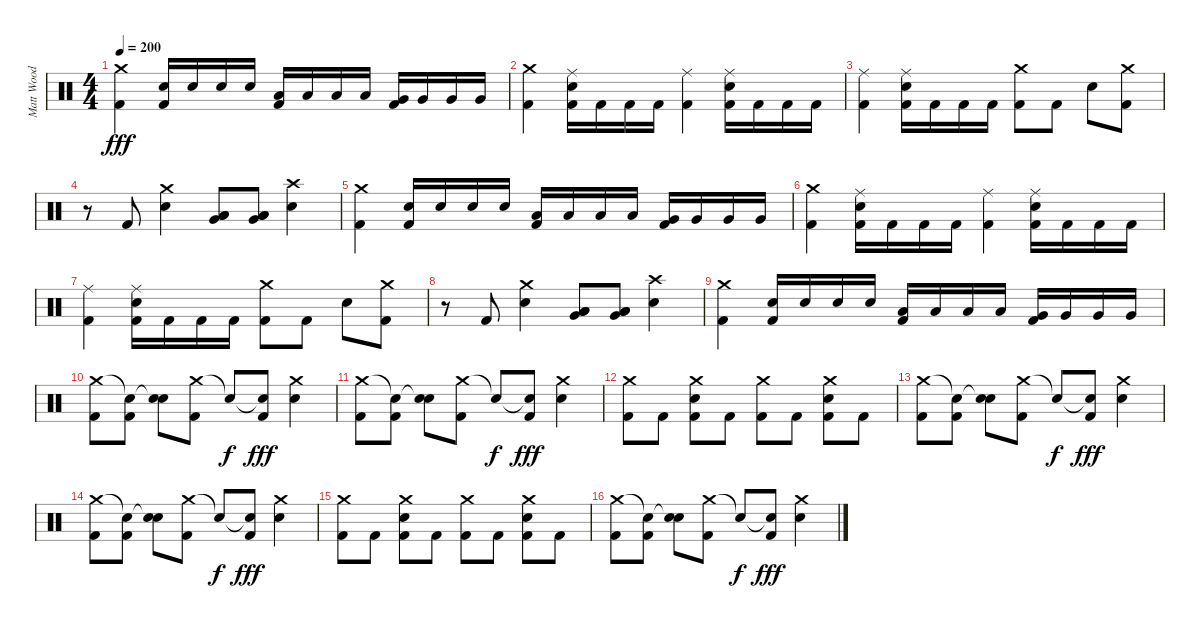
\track ("Matt Wood" "Matt Wood") {instrument percussion}
\staff {score}
\articulation defaults
\ts (4 4)
\tempo 200
\clef neutral
\ks c
("Crash medium (hit)" "Kick (hit) 2").4{dy fff} ("Electric Snare (hit)" "Kick (hit) 2").16 "Electric Snare (hit)".16 "Electric Snare (hit)".16 "Electric Snare (hit)".16 ("Low Tom (hit)" "Kick (hit) 2").16 "Low Tom (hit)".16 "Low Tom (hit)".16 "Low Tom (hit)".16 ("Very Low Tom (hit)" "Kick (hit) 2").16 "Very Low Tom (hit)".16 "Very Low Tom (hit)".16 "Very Low Tom (hit)".16 |
("Crash medium (hit)" "Kick (hit) 2").4 ("Ride (middle)" "Electric Snare (hit)" "Kick (hit) 2").16 "Kick (hit) 2".16 "Kick (hit) 2".16 "Kick (hit) 2".16 ("Ride (middle)" "Kick (hit) 2").4 ("Ride (middle)" "Electric Snare (hit)" "Kick (hit) 2").16 "Kick (hit) 2".16 "Kick (hit) 2".16 "Kick (hit) 2".16 |
("Ride (middle)" "Kick (hit) 2").4 ("Ride (middle)" "Electric Snare (hit)" "Kick (hit) 2").16 "Kick (hit) 2".16 "Kick (hit) 2".16 "Kick (hit) 2".16 ("Crash medium (hit)" "Kick (hit) 2").8 "Kick (hit) 2".8 "Electric Snare (hit)".8 ("Crash medium (hit)" "Kick (hit) 2").8 |
r.8 "Kick (hit) 2".8 ("Crash medium (hit)" "Electric Snare (hit)").4 ("Low Tom (hit)" "Very Low Tom (hit)" "Low Floor Tom (hit)").8 ("Low Tom (hit)" "Very Low Tom (hit)" "Low Floor Tom (hit)").8 ("Crash high (hit)" "Electric Snare (hit)").4 |
("Crash medium (hit)" "Kick (hit) 2").4 ("Electric Snare (hit)" "Kick (hit) 2").16 "Electric Snare (hit)".16 "Electric Snare (hit)".16 "Electric Snare (hit)".16 ("Low Tom (hit)" "Kick (hit) 2").16 "Low Tom (hit)".16 "Low Tom (hit)".16 "Low Tom (hit)".16 ("Very Low Tom (hit)" "Kick (hit) 2").16 "Very Low Tom (hit)".16 "Very Low Tom (hit)".16 "Very Low Tom (hit)".16 |
("Crash medium (hit)" "Kick (hit) 2").4 ("Ride (middle)" "Electric Snare (hit)" "Kick (hit) 2").16 "Kick (hit) 2".16 "Kick (hit) 2".16 "Kick (hit) 2".16 ("Ride (middle)" "Kick (hit) 2").4 ("Ride (middle)" "Electric Snare (hit)" "Kick (hit) 2").16 "Kick (hit) 2".16 "Kick (hit) 2".16 "Kick (hit) 2".16 |
("Ride (middle)" "Kick (hit) 2").4 ("Ride (middle)" "Electric Snare (hit)" "Kick (hit) 2").16 "Kick (hit) 2".16 "Kick (hit) 2".16 "Kick (hit) 2".16 ("Crash medium (hit)" "Kick (hit) 2").8 "Kick (hit) 2".8 "Electric Snare (hit)".8 ("Crash medium (hit)" "Kick (hit) 2").8 |
r.8 "Kick (hit) 2".8 ("Crash medium (hit)" "Electric Snare (hit)").4 ("Low Tom (hit)" "Very Low Tom (hit)" "Low Floor Tom (hit)").8 ("Low Tom (hit)" "Very Low Tom (hit)" "Low Floor Tom (hit)").8 ("Crash high (hit)" "Electric Snare (hit)").4 |
("Crash medium (hit)" "Kick (hit) 2").4 ("Electric Snare (hit)" "Kick (hit) 2").16 "Electric Snare (hit)".16 "Electric Snare (hit)".16 "Electric Snare (hit)".16 ("Low Tom (hit)" "Kick (hit) 2").16 "Low Tom (hit)".16 "Low Tom (hit)".16 "Low Tom (hit)".16 ("Very Low Tom (hit)" "Kick (hit) 2").16 "Very Low Tom (hit)".16 "Very Low Tom (hit)".16 "Very Low Tom (hit)".16 |
("Crash medium (hit)" "Kick (hit) 2").8 ("Snare (hit)"{t} "Kick (hit) 2").8 ("Snare (hit)"{t} "Electric Snare (hit)").8 ("Crash medium (hit)" "Kick (hit) 2").8 "Snare (hit)"{t}.8{dy f} ("Snare (hit)"{t} "Kick (hit) 2").8{dy fff} ("Crash medium (hit)" "Electric Snare (hit)").4 |
("Crash medium (hit)" "Kick (hit) 2").8 ("Snare (hit)"{t} "Kick (hit) 2").8 ("Snare (hit)"{t} "Electric Snare (hit)").8 ("Crash medium (hit)" "Kick (hit) 2").8 "Snare (hit)"{t}.8{dy f} ("Snare (hit)"{t} "Kick (hit) 2").8{dy fff} ("Crash medium (hit)" "Electric Snare (hit)").4 |
("Crash medium (hit)" "Kick (hit) 2").8 "Kick (hit) 2".8 ("Crash medium (hit)" "Electric Snare (hit)" "Kick (hit) 2").8 "Kick (hit) 2".8 ("Crash medium (hit)" "Kick (hit) 2").8 "Kick (hit) 2".8 ("Crash medium (hit)" "Electric Snare (hit)" "Kick (hit) 2").8 "Kick (hit) 2".8 |
("Crash medium (hit)" "Kick (hit) 2").8 ("Snare (hit)"{t} "Kick (hit) 2").8 ("Snare (hit)"{t} "Electric Snare (hit)").8 ("Crash medium (hit)" "Kick (hit) 2").8 "Snare (hit)"{t}.8{dy f} ("Snare (hit)"{t} "Kick (hit) 2").8{dy fff} ("Crash medium (hit)" "Electric Snare (hit)").4 |
("Crash medium (hit)" "Kick (hit) 2").8 ("Snare (hit)"{t} "Kick (hit) 2").8 ("Snare (hit)"{t} "Electric Snare (hit)").8 ("Crash medium (hit)" "Kick (hit) 2").8 "Snare (hit)"{t}.8{dy f} ("Snare (hit)"{t} "Kick (hit) 2").8{dy fff} ("Crash medium (hit)" "Electric Snare (hit)").4 |
("Crash medium (hit)" "Kick (hit) 2").8 "Kick (hit) 2".8 ("Crash medium (hit)" "Electric Snare (hit)" "Kick (hit) 2").8 "Kick (hit) 2".8 ("Crash medium (hit)" "Kick (hit) 2").8 "Kick (hit) 2".8 ("Crash medium (hit)" "Electric Snare (hit)" "Kick (hit) 2").8 "Kick (hit) 2".8 |
("Crash medium (hit)" "Kick (hit) 2").8 ("Snare (hit)"{t} "Kick (hit) 2").8 ("Snare (hit)"{t} "Electric Snare (hit)").8 ("Crash medium (hit)" "Kick (hit) 2").8 "Snare (hit)"{t}.8{dy f} ("Snare (hit)"{t} "Kick (hit) 2").8{dy fff} ("Crash medium (hit)" "Electric Snare (hit)").4
